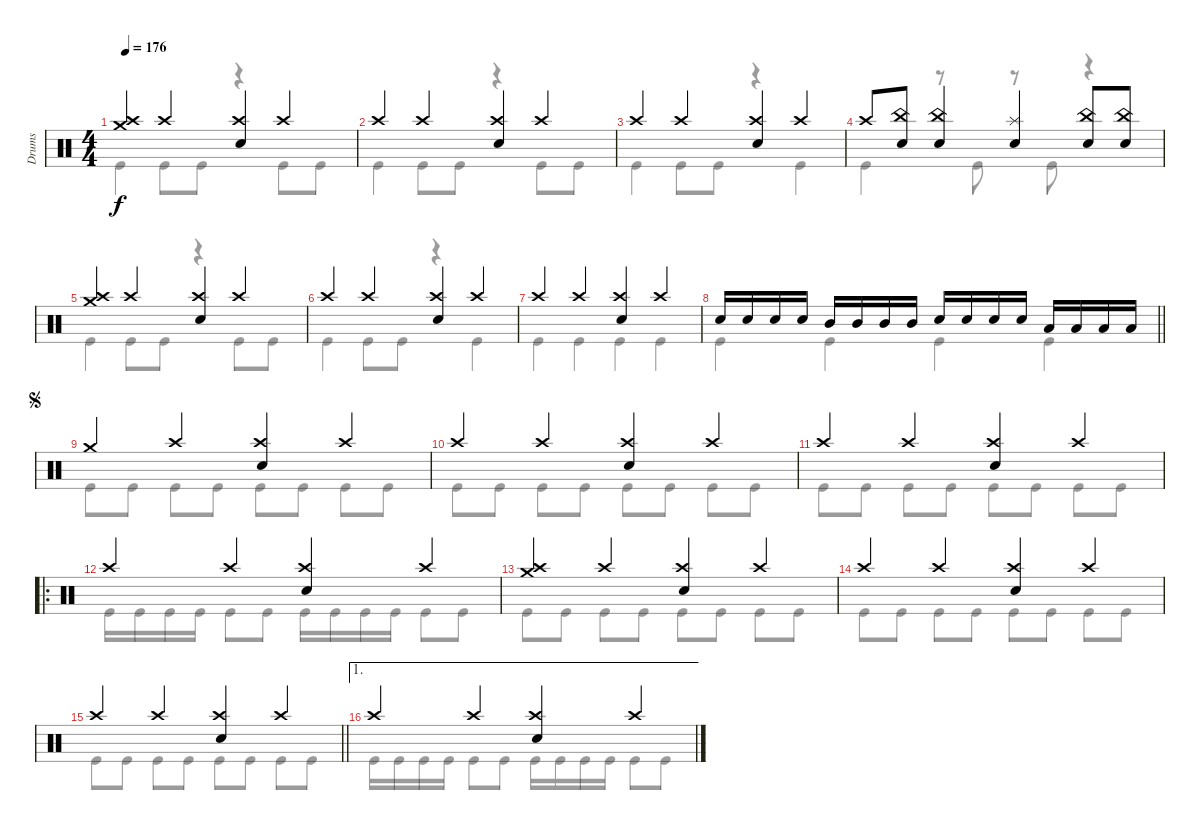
\track ("Drums" "Drums") {instrument percussion}
\staff {score}
\articulation defaults
\voice
\ts (4 4)
\tempo 176
\clef neutral
\ks c
("Crash medium (hit)" "Crash high (hit)").4{dy f} "Crash high (hit)".4 ("Crash high (hit)" "Snare (hit) 2").4 "Crash high (hit)".4 |
"Crash high (hit)".4 "Crash high (hit)".4 ("Crash high (hit)" "Snare (hit) 2").4 "Crash high (hit)".4 |
"Crash high (hit)".4 "Crash high (hit)".4 ("Crash high (hit)" "Snare (hit) 2").4 "Crash high (hit)".4 |
"Crash high (hit)".8 ("Snare (hit) 2" "China (hit)").8 ("Snare (hit) 2" "China (hit)").4 ("Snare (hit) 2" "Splash (hit)").4 ("Snare (hit) 2" "China (hit)").8 ("Snare (hit) 2" "China (hit)").8 |
("Crash medium (hit)" "Crash high (hit)").4 "Crash high (hit)".4 ("Crash high (hit)" "Snare (hit) 2").4 "Crash high (hit)".4 |
"Crash high (hit)".4 "Crash high (hit)".4 ("Crash high (hit)" "Snare (hit) 2").4 "Crash high (hit)".4 |
"Crash high (hit)".4 "Crash high (hit)".4 ("Crash high (hit)" "Snare (hit) 2").4 "Crash high (hit)".4 |
\barLineRight lightlight "Snare (hit) 2".16 "Snare (hit) 2".16 "Snare (hit) 2".16 "Snare (hit) 2".16 "Mid Tom (hit)".16 "Mid Tom (hit)".16 "Mid Tom (hit)".16 "Mid Tom (hit)".16 "Snare (hit) 2".16 "Snare (hit) 2".16 "Snare (hit) 2".16 "Snare (hit) 2".16 "Low Tom (hit)".16 "Low Tom (hit)".16 "Low Tom (hit)".16 "Low Tom (hit)".16
|
\jump segno "Crash medium (hit)".4 "Crash high (hit)".4
("Crash high (hit)" "Snare (hit) 2").4 "Crash high (hit)".4 |
"Crash high (hit)".4 "Crash high (hit)".4 ("Crash high (hit)" "Snare (hit) 2").4 "Crash high (hit)".4 |
"Crash high (hit)".4 "Crash high (hit)".4 ("Crash high (hit)" "Snare (hit) 2").4 "Crash high (hit)".4 |
\ro "Crash high (hit)".4 "Crash high (hit)".4
("Crash high (hit)" "Snare (hit) 2").4 "Crash high (hit)".4 |
("Crash medium (hit)" "Crash high (hit)").4 "Crash high (hit)".4 ("Crash high (hit)" "Snare (hit) 2").4 "Crash high (hit)".4 |
"Crash high (hit)".4 "Crash high (hit)".4 ("Crash high (hit)" "Snare (hit) 2").4 "Crash high (hit)".4 |
\barLineRight lightlight "Crash high (hit)".4 "Crash high (hit)".4
("Crash high (hit)" "Snare (hit) 2").4 "Crash high (hit)".4 |
\ae 1 "Crash high (hit)".4 "Crash high (hit)".4
("Crash high (hit)" "Snare (hit) 2").4 "Crash high (hit)".4
\voice
\clef neutral
\ottava regular
\simile none
\ks c "Kick (hit)".4{dy f} "Kick (hit)".8 "Kick (hit)".8
r.4 "Kick (hit)".8 "Kick (hit)".8 |
"Kick (hit)".4 "Kick (hit)".8 "Kick (hit)".8 r.4 "Kick (hit)".8 "Kick (hit)".8 |
"Kick (hit)".4 "Kick (hit)".8 "Kick (hit)".8 r.4 "Kick (hit)".4 |
"Kick (hit)".4 r.8 "Kick (hit)".8 r.8 "Kick (hit)".8 r.4 |
"Kick (hit)".4 "Kick (hit)".8 "Kick (hit)".8 r.4 "Kick (hit)".8 "Kick (hit)".8 |
"Kick (hit)".4 "Kick (hit)".8 "Kick (hit)".8 r.4 "Kick (hit)".4 |
"Kick (hit)".4 "Kick (hit)".4 "Kick (hit)".4 "Kick (hit)".4 |
\barLineRight lightlight "Kick (hit)".4 "Kick (hit)".4 "Kick (hit)".4 "Kick (hit)".4
|
"Kick (hit)".8 "Kick (hit)".8 "Kick (hit)".8 "Kick (hit)".8 "Kick (hit)".8 "Kick (hit)".8 "Kick (hit)".8 "Kick (hit)".8 |
"Kick (hit)".8 "Kick (hit)".8 "Kick (hit)".8 "Kick (hit)".8 "Kick (hit)".8 "Kick (hit)".8 "Kick (hit)".8 "Kick (hit)".8 |
"Kick (hit)".8 "Kick (hit)".8 "Kick (hit)".8 "Kick (hit)".8 "Kick (hit)".8 "Kick (hit)".8 "Kick (hit)".8 "Kick (hit)".8 |
"Kick (hit)".16 "Kick (hit)".16 "Kick (hit)".16 "Kick (hit)".16 "Kick (hit)".8 "Kick (hit)".8 "Kick (hit)".16 "Kick (hit)".16 "Kick (hit)".16 "Kick (hit)".16 "Kick (hit)".8 "Kick (hit)".8 |
"Kick (hit)".8 "Kick (hit)".8 "Kick (hit)".8 "Kick (hit)".8 "Kick (hit)".8 "Kick (hit)".8 "Kick (hit)".8 "Kick (hit)".8 |
"Kick (hit)".8 "Kick (hit)".8 "Kick (hit)".8 "Kick (hit)".8 "Kick (hit)".8 "Kick (hit)".8 "Kick (hit)".8 "Kick (hit)".8 |
\barLineRight lightlight "Kick (hit)".8 "Kick (hit)".8 "Kick (hit)".8 "Kick (hit)".8 "Kick (hit)".8 "Kick (hit)".8 "Kick (hit)".8 "Kick (hit)".8
|
"Kick (hit)".16 "Kick (hit)".16 "Kick (hit)".16 "Kick (hit)".16 "Kick (hit)".8 "Kick (hit)".8 "Kick (hit)".16 "Kick (hit)".16 "Kick (hit)".16 "Kick (hit)".16 "Kick (hit)".8 "Kick (hit)".8
